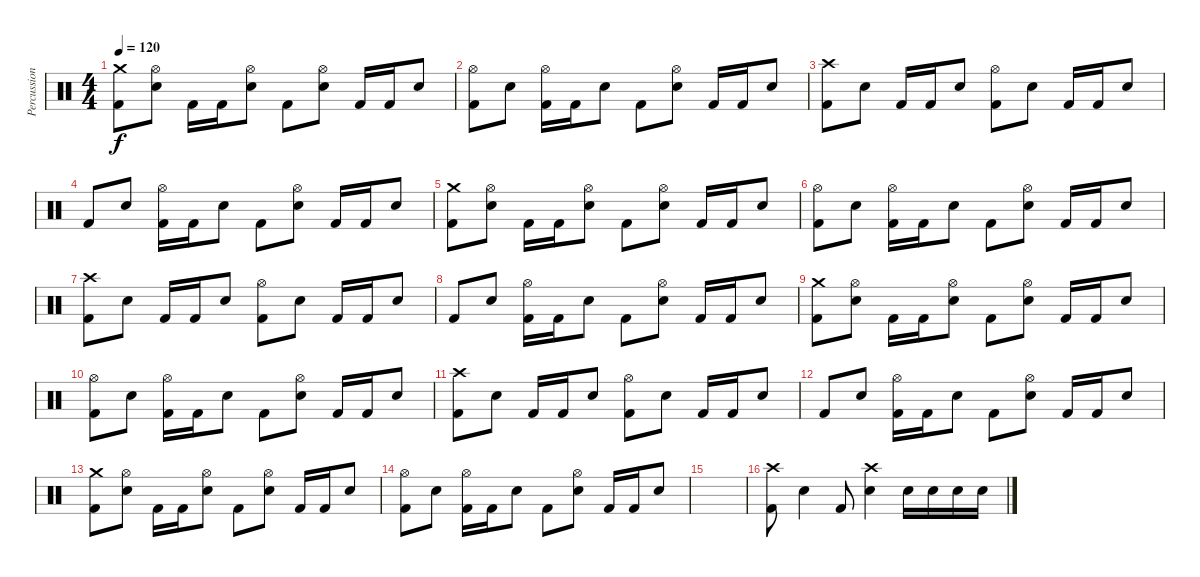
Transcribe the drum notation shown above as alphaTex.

\track ("Percussion" "Percussion") {instrument percussion}
\staff {score}
\articulation defaults
\ts (4 4)
\tempo 120
\clef neutral
\ks c
("Kick (hit) 2" "Crash medium (hit)").8{dy f} ("Snare (hit) 2" "Hi-Hat (open)").8 "Kick (hit) 2".16 "Kick (hit) 2".16 ("Snare (hit) 2" "Hi-Hat (open)").8 "Kick (hit) 2".8 ("Snare (hit) 2" "Hi-Hat (open)").8 "Kick (hit) 2".16 "Kick (hit) 2".16 "Snare (hit) 2".8 |
("Kick (hit) 2" "Hi-Hat (open)").8 "Snare (hit) 2".8 ("Kick (hit) 2" "Hi-Hat (open)").16 "Kick (hit) 2".16 "Snare (hit) 2".8 "Kick (hit) 2".8 ("Snare (hit) 2" "Hi-Hat (open)").8 "Kick (hit) 2".16 "Kick (hit) 2".16 "Snare (hit) 2".8 |
("Kick (hit) 2" "Crash high (hit)").8 "Snare (hit) 2".8 "Kick (hit) 2".16 "Kick (hit) 2".16 "Snare (hit) 2".8 ("Kick (hit) 2" "Hi-Hat (open)").8 "Snare (hit) 2".8 "Kick (hit) 2".16 "Kick (hit) 2".16 "Snare (hit) 2".8 |
"Kick (hit) 2".8 "Snare (hit) 2".8 ("Kick (hit) 2" "Hi-Hat (open)").16 "Kick (hit) 2".16 "Snare (hit) 2".8 "Kick (hit) 2".8 ("Snare (hit) 2" "Hi-Hat (open)").8 "Kick (hit) 2".16 "Kick (hit) 2".16 "Snare (hit) 2".8 |
\ks aminor
("Kick (hit) 2" "Crash medium (hit)").8 ("Snare (hit) 2" "Hi-Hat (open)").8 "Kick (hit) 2".16 "Kick (hit) 2".16 ("Snare (hit) 2" "Hi-Hat (open)").8 "Kick (hit) 2".8 ("Snare (hit) 2" "Hi-Hat (open)").8 "Kick (hit) 2".16 "Kick (hit) 2".16 "Snare (hit) 2".8 |
\ks c
("Kick (hit) 2" "Hi-Hat (open)").8 "Snare (hit) 2".8 ("Kick (hit) 2" "Hi-Hat (open)").16 "Kick (hit) 2".16 "Snare (hit) 2".8 "Kick (hit) 2".8 ("Snare (hit) 2" "Hi-Hat (open)").8 "Kick (hit) 2".16 "Kick (hit) 2".16 "Snare (hit) 2".8 |
("Kick (hit) 2" "Crash high (hit)").8 "Snare (hit) 2".8 "Kick (hit) 2".16 "Kick (hit) 2".16 "Snare (hit) 2".8 ("Kick (hit) 2" "Hi-Hat (open)").8 "Snare (hit) 2".8 "Kick (hit) 2".16 "Kick (hit) 2".16 "Snare (hit) 2".8 |
"Kick (hit) 2".8 "Snare (hit) 2".8 ("Kick (hit) 2" "Hi-Hat (open)").16 "Kick (hit) 2".16 "Snare (hit) 2".8 "Kick (hit) 2".8 ("Snare (hit) 2" "Hi-Hat (open)").8 "Kick (hit) 2".16 "Kick (hit) 2".16 "Snare (hit) 2".8 |
\ks aminor
("Kick (hit) 2" "Crash medium (hit)").8 ("Snare (hit) 2" "Hi-Hat (open)").8 "Kick (hit) 2".16 "Kick (hit) 2".16 ("Snare (hit) 2" "Hi-Hat (open)").8 "Kick (hit) 2".8 ("Snare (hit) 2" "Hi-Hat (open)").8 "Kick (hit) 2".16 "Kick (hit) 2".16 "Snare (hit) 2".8 |
\ks c
("Kick (hit) 2" "Hi-Hat (open)").8 "Snare (hit) 2".8 ("Kick (hit) 2" "Hi-Hat (open)").16 "Kick (hit) 2".16 "Snare (hit) 2".8 "Kick (hit) 2".8 ("Snare (hit) 2" "Hi-Hat (open)").8 "Kick (hit) 2".16 "Kick (hit) 2".16 "Snare (hit) 2".8 |
("Kick (hit) 2" "Crash high (hit)").8 "Snare (hit) 2".8 "Kick (hit) 2".16 "Kick (hit) 2".16 "Snare (hit) 2".8 ("Kick (hit) 2" "Hi-Hat (open)").8 "Snare (hit) 2".8 "Kick (hit) 2".16 "Kick (hit) 2".16 "Snare (hit) 2".8 |
\ks aminor "Kick (hit) 2".8 "Snare (hit) 2".8
("Kick (hit) 2" "Hi-Hat (open)").16 "Kick (hit) 2".16 "Snare (hit) 2".8 "Kick (hit) 2".8 ("Snare (hit) 2" "Hi-Hat (open)").8 "Kick (hit) 2".16 "Kick (hit) 2".16 "Snare (hit) 2".8 |
\ks c
("Kick (hit) 2" "Crash medium (hit)").8 ("Snare (hit) 2" "Hi-Hat (open)").8 "Kick (hit) 2".16 "Kick (hit) 2".16 ("Snare (hit) 2" "Hi-Hat (open)").8 "Kick (hit) 2".8 ("Snare (hit) 2" "Hi-Hat (open)").8 "Kick (hit) 2".16 "Kick (hit) 2".16 "Snare (hit) 2".8 |
\ks aminor
("Kick (hit) 2" "Hi-Hat (open)").8 "Snare (hit) 2".8 ("Kick (hit) 2" "Hi-Hat (open)").16 "Kick (hit) 2".16 "Snare (hit) 2".8 "Kick (hit) 2".8 ("Snare (hit) 2" "Hi-Hat (open)").8 "Kick (hit) 2".16 "Kick (hit) 2".16 "Snare (hit) 2".8 |
\ks c
|
\ks aminor
("Kick (hit) 2" "Crash high (hit)").8 "Snare (hit) 2".4 "Kick (hit) 2".8 ("Snare (hit) 2" "Crash high (hit)").4 "Snare (hit) 2".16 "Snare (hit) 2".16 "Snare (hit) 2".16 "Snare (hit) 2".16
